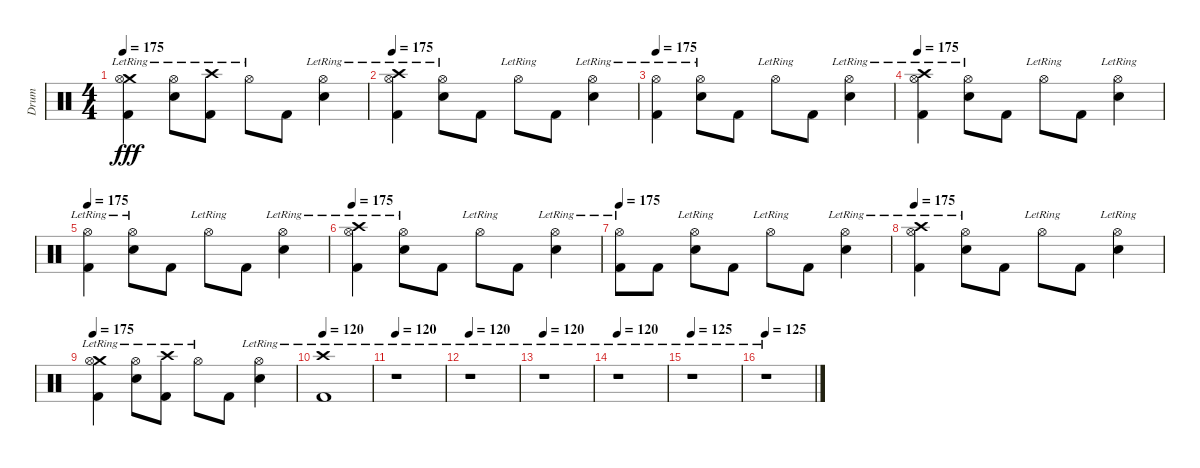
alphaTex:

\track ("Drum" "Drum") {instrument percussion}
\staff {score}
\articulation defaults
\ts (4 4)
\tempo 175
\clef neutral
\ks c
("Crash medium (hit)"{lr} "Hi-Hat (open)"{lr} "Kick (hit) 2").4{dy fff} ("Hi-Hat (open)"{lr} "Electric Snare (hit)").8 ("Crash high (hit)"{lr} "Kick (hit) 2").8 "Hi-Hat (open)"{lr}.8 "Kick (hit) 2".8 ("Hi-Hat (open)"{lr} "Electric Snare (hit)").4 |
\tempo 175
("Crash high (hit)"{lr} "Hi-Hat (open)"{lr} "Kick (hit) 2").4 ("Hi-Hat (open)"{lr} "Electric Snare (hit)").8 "Kick (hit) 2".8 "Hi-Hat (open)"{lr}.8 "Kick (hit) 2".8 ("Hi-Hat (open)"{lr} "Electric Snare (hit)").4 |
\tempo 175
("Hi-Hat (open)"{lr} "Kick (hit) 2").4 ("Hi-Hat (open)"{lr} "Electric Snare (hit)").8 "Kick (hit) 2".8 "Hi-Hat (open)"{lr}.8 "Kick (hit) 2".8 ("Hi-Hat (open)"{lr} "Electric Snare (hit)").4 |
\tempo 175
("Crash high (hit)"{lr} "Hi-Hat (open)"{lr} "Kick (hit) 2").4 ("Hi-Hat (open)"{lr} "Electric Snare (hit)").8 "Kick (hit) 2".8 "Hi-Hat (open)"{lr}.8 "Kick (hit) 2".8 ("Hi-Hat (open)"{lr} "Electric Snare (hit)").4 |
\tempo 175
("Hi-Hat (open)"{lr} "Kick (hit) 2").4 ("Hi-Hat (open)"{lr} "Electric Snare (hit)").8 "Kick (hit) 2".8 "Hi-Hat (open)"{lr}.8 "Kick (hit) 2".8 ("Hi-Hat (open)"{lr} "Electric Snare (hit)").4 |
\tempo 175
("Crash high (hit)"{lr} "Hi-Hat (open)"{lr} "Kick (hit) 2").4 ("Hi-Hat (open)"{lr} "Electric Snare (hit)").8 "Kick (hit) 2".8 "Hi-Hat (open)"{lr}.8 "Kick (hit) 2".8 ("Hi-Hat (open)"{lr} "Electric Snare (hit)").4 |
\tempo 175
("Hi-Hat (open)"{lr} "Kick (hit) 2").8 "Kick (hit) 2".8 ("Hi-Hat (open)"{lr} "Electric Snare (hit)").8 "Kick (hit) 2".8 "Hi-Hat (open)"{lr}.8 "Kick (hit) 2".8 ("Hi-Hat (open)"{lr} "Electric Snare (hit)").4 |
\tempo 175
("Crash high (hit)"{lr} "Hi-Hat (open)"{lr} "Kick (hit) 2").4 ("Hi-Hat (open)"{lr} "Electric Snare (hit)").8 "Kick (hit) 2".8 "Hi-Hat (open)"{lr}.8 "Kick (hit) 2".8 ("Hi-Hat (open)"{lr} "Electric Snare (hit)").4 |
\tempo 175
("Crash medium (hit)"{lr} "Hi-Hat (open)"{lr} "Kick (hit) 2").4 ("Hi-Hat (open)"{lr} "Electric Snare (hit)").8 ("Crash high (hit)"{lr} "Kick (hit) 2").8 "Hi-Hat (open)"{lr}.8 "Kick (hit) 2".8 ("Hi-Hat (open)"{lr} "Electric Snare (hit)").4 |
\tempo 120
("Crash high (hit)"{lr} "Kick (hit) 2").1 |
\tempo 120
r.1 |
\tempo 120
r.1 |
\tempo 120
r.1 |
\tempo 120
r.1 |
\tempo 125
r.1 |
\tempo 125
r.1
